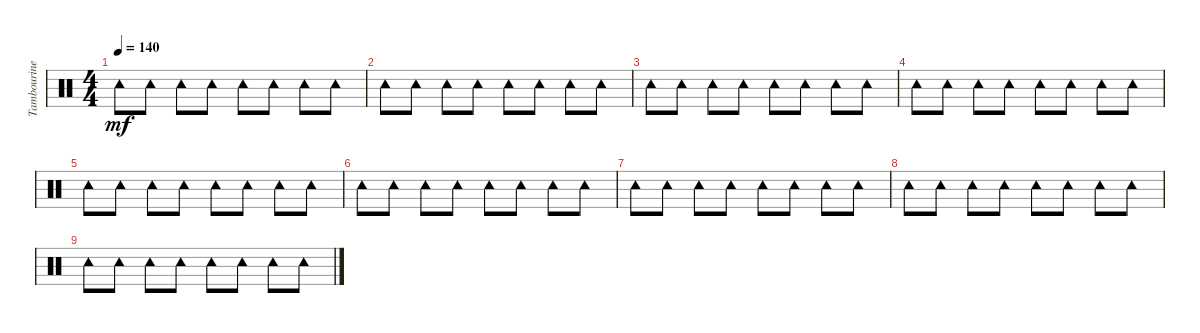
\track ("Tambourine" "Tambourine") {instrument percussion}
\staff {score}
\articulation defaults
\ts (4 4)
\tempo 140
\clef neutral
\ks c "Tambourine (hit)".8{dy mf} "Tambourine (hit)".8 "Tambourine (hit)".8 "Tambourine (hit)".8 "Tambourine (hit)".8 "Tambourine (hit)".8 "Tambourine (hit)".8 "Tambourine (hit)".8
|
"Tambourine (hit)".8 "Tambourine (hit)".8 "Tambourine (hit)".8 "Tambourine (hit)".8 "Tambourine (hit)".8 "Tambourine (hit)".8 "Tambourine (hit)".8 "Tambourine (hit)".8 |
"Tambourine (hit)".8 "Tambourine (hit)".8 "Tambourine (hit)".8 "Tambourine (hit)".8 "Tambourine (hit)".8 "Tambourine (hit)".8 "Tambourine (hit)".8 "Tambourine (hit)".8 |
"Tambourine (hit)".8 "Tambourine (hit)".8 "Tambourine (hit)".8 "Tambourine (hit)".8 "Tambourine (hit)".8 "Tambourine (hit)".8 "Tambourine (hit)".8 "Tambourine (hit)".8 |
"Tambourine (hit)".8 "Tambourine (hit)".8 "Tambourine (hit)".8 "Tambourine (hit)".8 "Tambourine (hit)".8 "Tambourine (hit)".8 "Tambourine (hit)".8 "Tambourine (hit)".8 |
"Tambourine (hit)".8 "Tambourine (hit)".8 "Tambourine (hit)".8 "Tambourine (hit)".8 "Tambourine (hit)".8 "Tambourine (hit)".8 "Tambourine (hit)".8 "Tambourine (hit)".8 |
"Tambourine (hit)".8 "Tambourine (hit)".8 "Tambourine (hit)".8 "Tambourine (hit)".8 "Tambourine (hit)".8 "Tambourine (hit)".8 "Tambourine (hit)".8 "Tambourine (hit)".8 |
"Tambourine (hit)".8 "Tambourine (hit)".8 "Tambourine (hit)".8 "Tambourine (hit)".8 "Tambourine (hit)".8 "Tambourine (hit)".8 "Tambourine (hit)".8 "Tambourine (hit)".8 |
"Tambourine (hit)".8 "Tambourine (hit)".8 "Tambourine (hit)".8 "Tambourine (hit)".8 "Tambourine (hit)".8 "Tambourine (hit)".8 "Tambourine (hit)".8 "Tambourine (hit)".8
